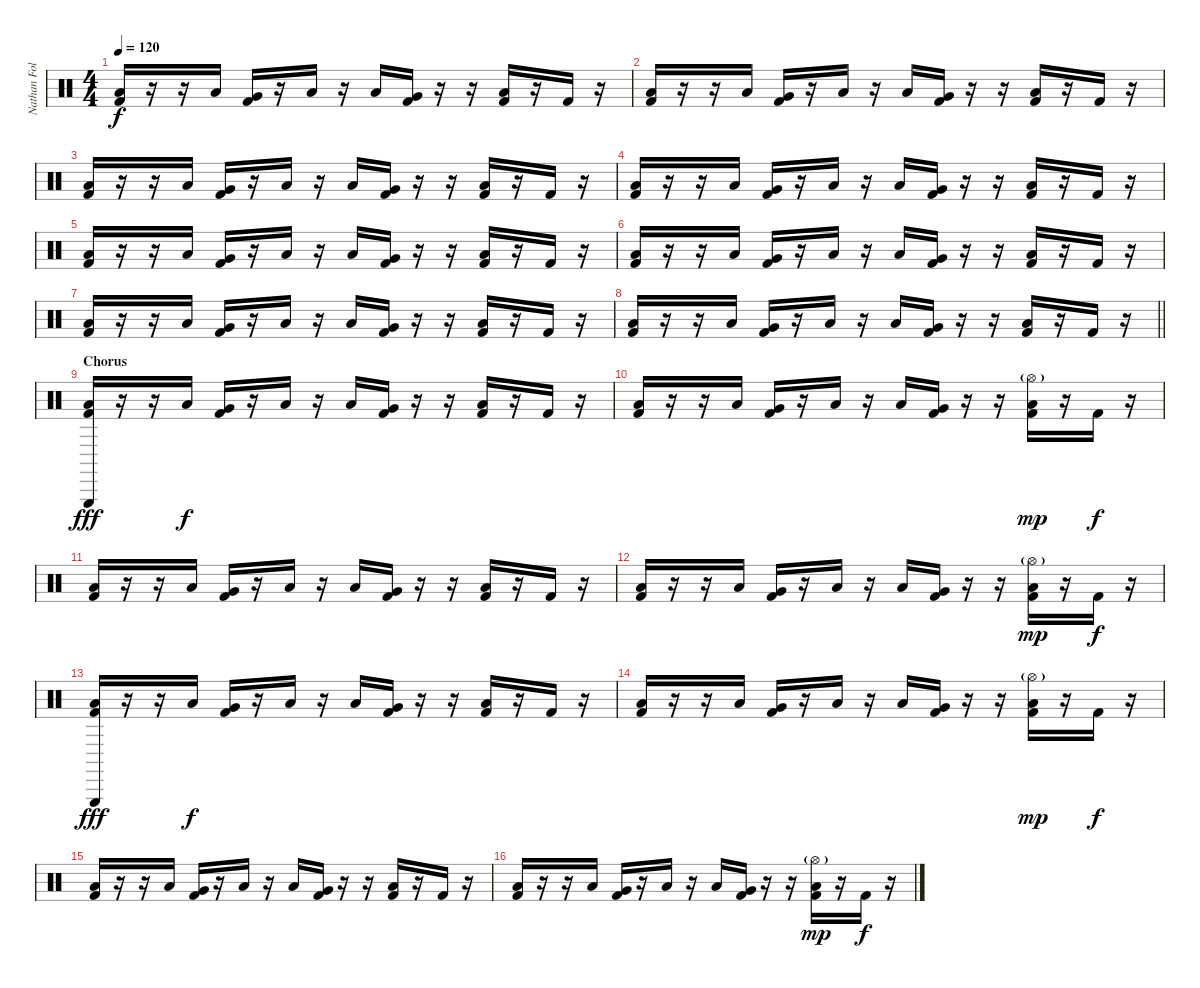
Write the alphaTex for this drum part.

\track ("Nathan Followill - Drums" "Nathan Fol") {instrument percussion}
\staff {score}
\articulation defaults
\ts (4 4)
\tempo 120
\clef neutral
\ks c
("Low Tom (hit)" "Kick (hit) 2").16{dy f} r.16 r.16 "Low Tom (hit)".16 ("Very Low Tom (hit)" "Kick (hit) 2").16 r.16 "Low Tom (hit)".16 r.16 "Low Tom (hit)".16 ("Very Low Tom (hit)" "Kick (hit) 2").16 r.16 r.16 ("Low Tom (hit)" "Kick (hit) 2").16 r.16 "Kick (hit) 2".16 r.16 |
("Low Tom (hit)" "Kick (hit) 2").16 r.16 r.16 "Low Tom (hit)".16 ("Very Low Tom (hit)" "Kick (hit) 2").16 r.16 "Low Tom (hit)".16 r.16 "Low Tom (hit)".16 ("Very Low Tom (hit)" "Kick (hit) 2").16 r.16 r.16 ("Low Tom (hit)" "Kick (hit) 2").16 r.16 "Kick (hit) 2".16 r.16 |
("Low Tom (hit)" "Kick (hit) 2").16 r.16 r.16 "Low Tom (hit)".16 ("Very Low Tom (hit)" "Kick (hit) 2").16 r.16 "Low Tom (hit)".16 r.16 "Low Tom (hit)".16 ("Very Low Tom (hit)" "Kick (hit) 2").16 r.16 r.16 ("Low Tom (hit)" "Kick (hit) 2").16 r.16 "Kick (hit) 2".16 r.16 |
("Low Tom (hit)" "Kick (hit) 2").16 r.16 r.16 "Low Tom (hit)".16 ("Very Low Tom (hit)" "Kick (hit) 2").16 r.16 "Low Tom (hit)".16 r.16 "Low Tom (hit)".16 ("Very Low Tom (hit)" "Kick (hit) 2").16 r.16 r.16 ("Low Tom (hit)" "Kick (hit) 2").16 r.16 "Kick (hit) 2".16 r.16 |
("Low Tom (hit)" "Kick (hit) 2").16 r.16 r.16 "Low Tom (hit)".16 ("Very Low Tom (hit)" "Kick (hit) 2").16 r.16 "Low Tom (hit)".16 r.16 "Low Tom (hit)".16 ("Very Low Tom (hit)" "Kick (hit) 2").16 r.16 r.16 ("Low Tom (hit)" "Kick (hit) 2").16 r.16 "Kick (hit) 2".16 r.16 |
("Low Tom (hit)" "Kick (hit) 2").16 r.16 r.16 "Low Tom (hit)".16 ("Very Low Tom (hit)" "Kick (hit) 2").16 r.16 "Low Tom (hit)".16 r.16 "Low Tom (hit)".16 ("Very Low Tom (hit)" "Kick (hit) 2").16 r.16 r.16 ("Low Tom (hit)" "Kick (hit) 2").16 r.16 "Kick (hit) 2".16 r.16 |
("Low Tom (hit)" "Kick (hit) 2").16 r.16 r.16 "Low Tom (hit)".16 ("Very Low Tom (hit)" "Kick (hit) 2").16 r.16 "Low Tom (hit)".16 r.16 "Low Tom (hit)".16 ("Very Low Tom (hit)" "Kick (hit) 2").16 r.16 r.16 ("Low Tom (hit)" "Kick (hit) 2").16 r.16 "Kick (hit) 2".16 r.16 |
\barLineRight lightlight
("Low Tom (hit)" "Kick (hit) 2").16 r.16 r.16 "Low Tom (hit)".16 ("Very Low Tom (hit)" "Kick (hit) 2").16 r.16 "Low Tom (hit)".16 r.16 "Low Tom (hit)".16 ("Very Low Tom (hit)" "Kick (hit) 2").16 r.16 r.16 ("Low Tom (hit)" "Kick (hit) 2").16 r.16 "Kick (hit) 2".16 r.16 |
\section ("" "Chorus")
("Triangle (hit)" "Low Tom (hit)" "Kick (hit) 2").16{dy fff} r.16 r.16 "Low Tom (hit)".16{dy f} ("Very Low Tom (hit)" "Kick (hit) 2").16 r.16 "Low Tom (hit)".16 r.16 "Low Tom (hit)".16 ("Very Low Tom (hit)" "Kick (hit) 2").16 r.16 r.16 ("Low Tom (hit)" "Kick (hit) 2").16 r.16 "Kick (hit) 2".16 r.16 |
("Low Tom (hit)" "Kick (hit) 2").16 r.16 r.16 "Low Tom (hit)".16 ("Very Low Tom (hit)" "Kick (hit) 2").16 r.16 "Low Tom (hit)".16 r.16 "Low Tom (hit)".16 ("Very Low Tom (hit)" "Kick (hit) 2").16 r.16 r.16 ("Hi-Hat (open)"{g} "Low Tom (hit)" "Kick (hit) 2").16{dy mp} r.16 "Kick (hit) 2".16{dy f} r.16 |
("Low Tom (hit)" "Kick (hit) 2").16 r.16 r.16 "Low Tom (hit)".16 ("Very Low Tom (hit)" "Kick (hit) 2").16 r.16 "Low Tom (hit)".16 r.16 "Low Tom (hit)".16 ("Very Low Tom (hit)" "Kick (hit) 2").16 r.16 r.16 ("Low Tom (hit)" "Kick (hit) 2").16 r.16 "Kick (hit) 2".16 r.16 |
("Low Tom (hit)" "Kick (hit) 2").16 r.16 r.16 "Low Tom (hit)".16 ("Very Low Tom (hit)" "Kick (hit) 2").16 r.16 "Low Tom (hit)".16 r.16 "Low Tom (hit)".16 ("Very Low Tom (hit)" "Kick (hit) 2").16 r.16 r.16 ("Hi-Hat (open)"{g} "Low Tom (hit)" "Kick (hit) 2").16{dy mp} r.16 "Kick (hit) 2".16{dy f} r.16 |
("Triangle (hit)" "Low Tom (hit)" "Kick (hit) 2").16{dy fff} r.16 r.16 "Low Tom (hit)".16{dy f} ("Very Low Tom (hit)" "Kick (hit) 2").16 r.16 "Low Tom (hit)".16 r.16 "Low Tom (hit)".16 ("Very Low Tom (hit)" "Kick (hit) 2").16 r.16 r.16 ("Low Tom (hit)" "Kick (hit) 2").16 r.16 "Kick (hit) 2".16 r.16 |
("Low Tom (hit)" "Kick (hit) 2").16 r.16 r.16 "Low Tom (hit)".16 ("Very Low Tom (hit)" "Kick (hit) 2").16 r.16 "Low Tom (hit)".16 r.16 "Low Tom (hit)".16 ("Very Low Tom (hit)" "Kick (hit) 2").16 r.16 r.16 ("Hi-Hat (open)"{g} "Low Tom (hit)" "Kick (hit) 2").16{dy mp} r.16 "Kick (hit) 2".16{dy f} r.16 |
("Low Tom (hit)" "Kick (hit) 2").16 r.16 r.16 "Low Tom (hit)".16 ("Very Low Tom (hit)" "Kick (hit) 2").16 r.16 "Low Tom (hit)".16 r.16 "Low Tom (hit)".16 ("Very Low Tom (hit)" "Kick (hit) 2").16 r.16 r.16 ("Low Tom (hit)" "Kick (hit) 2").16 r.16 "Kick (hit) 2".16 r.16 |
("Low Tom (hit)" "Kick (hit) 2").16 r.16 r.16 "Low Tom (hit)".16 ("Very Low Tom (hit)" "Kick (hit) 2").16 r.16 "Low Tom (hit)".16 r.16 "Low Tom (hit)".16 ("Very Low Tom (hit)" "Kick (hit) 2").16 r.16 r.16 ("Hi-Hat (open)"{g} "Low Tom (hit)" "Kick (hit) 2").16{dy mp} r.16 "Kick (hit) 2".16{dy f} r.16
